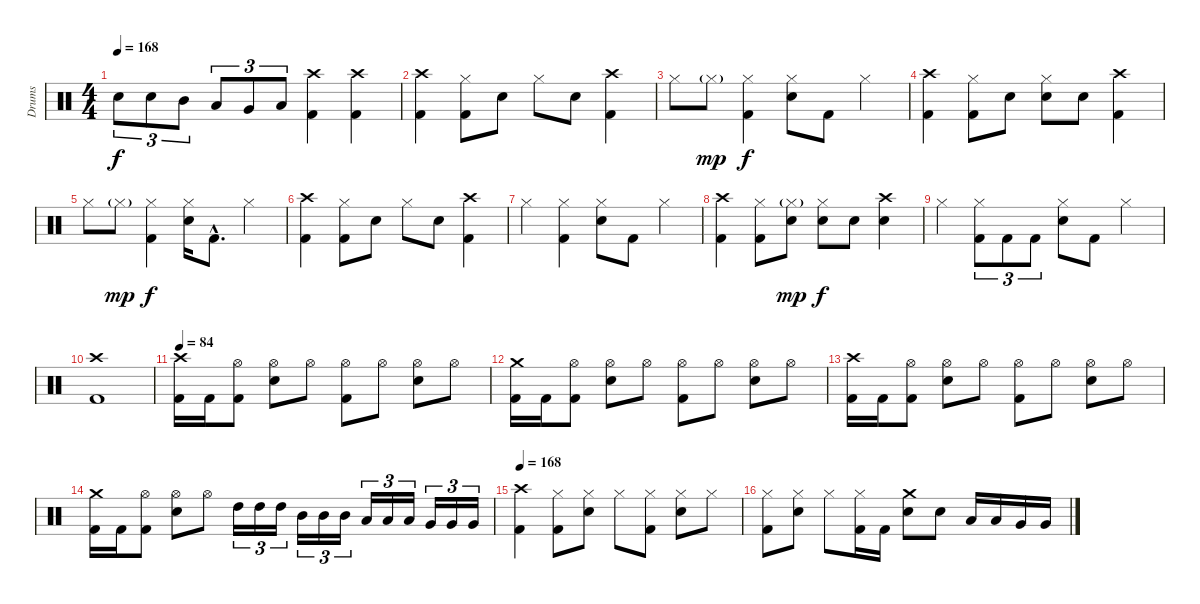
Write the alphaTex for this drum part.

\track ("Drums" "Drums") {instrument percussion}
\staff {score}
\articulation defaults
\ts (4 4)
\tempo 168
\clef neutral
\ks c "Electric Snare (hit)".8{tu (3 2) dy f} "Electric Snare (hit)".8{tu (3 2)} "Mid Tom (hit)".8{tu (3 2)} "Low Tom (hit)".8{tu (3 2)} "Very Low Tom (hit)".8{tu (3 2)} "Low Floor Tom (hit)".8{tu (3 2)}
("Crash high (hit)" "Kick (hit) 2").4 ("Crash high (hit)" "Kick (hit) 2").4 |
("Crash high (hit)" "Kick (hit) 2").4 ("Hi-Hat (closed)" "Kick (hit) 2").8 "Electric Snare (hit)".8 "Hi-Hat (closed)".8 "Electric Snare (hit)".8 ("Crash high (hit)" "Kick (hit) 2").4 |
"Hi-Hat (closed)".8 "Hi-Hat (closed)"{g}.8{dy mp} ("Hi-Hat (closed)" "Kick (hit) 2").4{dy f} ("Hi-Hat (closed)" "Electric Snare (hit)").8 "Kick (hit) 2".8 "Hi-Hat (closed)".4 |
("Crash high (hit)" "Kick (hit) 2").4 ("Hi-Hat (closed)" "Kick (hit) 2").8 "Electric Snare (hit)".8 ("Hi-Hat (closed)" "Electric Snare (hit)").8 "Electric Snare (hit)".8 ("Crash high (hit)" "Kick (hit) 2").4 |
"Hi-Hat (closed)".8 "Hi-Hat (closed)"{g}.8{dy mp} ("Hi-Hat (closed)" "Kick (hit) 2").4{dy f} ("Hi-Hat (closed)" "Electric Snare (hit)").16 "Kick (hit) 2"{hac}.8{d} "Hi-Hat (closed)".4 |
("Crash high (hit)" "Kick (hit) 2").4 ("Hi-Hat (closed)" "Kick (hit) 2").8 "Electric Snare (hit)".8 "Hi-Hat (closed)".8 "Electric Snare (hit)".8 ("Crash high (hit)" "Kick (hit) 2").4 |
"Hi-Hat (closed)".4 ("Hi-Hat (closed)" "Kick (hit) 2").4 ("Hi-Hat (closed)" "Electric Snare (hit)").8 "Kick (hit) 2".8 "Hi-Hat (closed)".4 |
("Crash high (hit)" "Kick (hit) 2").4 ("Hi-Hat (closed)" "Kick (hit) 2").8 ("Hi-Hat (closed)"{g} "Electric Snare (hit)").8{dy mp} ("Hi-Hat (closed)" "Electric Snare (hit)").8{dy f} "Electric Snare (hit)".8 ("Crash high (hit)" "Electric Snare (hit)").4 |
"Hi-Hat (closed)".4 ("Hi-Hat (closed)" "Kick (hit) 2").8{tu (3 2)} "Kick (hit) 2".8{tu (3 2)} "Kick (hit) 2".8{tu (3 2)} ("Hi-Hat (closed)" "Electric Snare (hit)").8 "Kick (hit) 2".8 "Hi-Hat (closed)".4 |
("Crash high (hit)" "Kick (hit) 2").1 |
\tempo 84
("Crash high (hit)" "Kick (hit) 2").16 "Kick (hit) 2".16 ("Hi-Hat (open)" "Kick (hit) 2").8 ("Hi-Hat (open)" "Electric Snare (hit)").8 "Hi-Hat (open)".8 ("Hi-Hat (open)" "Kick (hit) 2").8 "Hi-Hat (open)".8 ("Hi-Hat (open)" "Electric Snare (hit)").8 "Hi-Hat (open)".8 |
("Crash medium (hit)" "Kick (hit) 2").16 "Kick (hit) 2".16 ("Hi-Hat (open)" "Kick (hit) 2").8 ("Hi-Hat (open)" "Electric Snare (hit)").8 "Hi-Hat (open)".8 ("Hi-Hat (open)" "Kick (hit) 2").8 "Hi-Hat (open)".8 ("Hi-Hat (open)" "Electric Snare (hit)").8 "Hi-Hat (open)".8 |
("Crash high (hit)" "Kick (hit) 2").16 "Kick (hit) 2".16 ("Hi-Hat (open)" "Kick (hit) 2").8 ("Hi-Hat (open)" "Electric Snare (hit)").8 "Hi-Hat (open)".8 ("Hi-Hat (open)" "Kick (hit) 2").8 "Hi-Hat (open)".8 ("Hi-Hat (open)" "Electric Snare (hit)").8 "Hi-Hat (open)".8 |
("Crash medium (hit)" "Kick (hit) 2").16 "Kick (hit) 2".16 ("Hi-Hat (open)" "Kick (hit) 2").8 ("Hi-Hat (open)" "Electric Snare (hit)").8 "Hi-Hat (open)".8 "High Tom (hit)".16{tu (3 2)} "High Tom (hit)".16{tu (3 2)} "High Tom (hit)".16{tu (3 2)} "Mid Tom (hit)".16{tu (3 2)} "Mid Tom (hit)".16{tu (3 2)} "Mid Tom (hit)".16{tu (3 2)} "Low Tom (hit)".16{tu (3 2)} "Low Tom (hit)".16{tu (3 2)} "Low Tom (hit)".16{tu (3 2)} "Very Low Tom (hit)".16{tu (3 2)} "Very Low Tom (hit)".16{tu (3 2)} "Very Low Tom (hit)".16{tu (3 2)} |
\tempo 168
("Crash high (hit)" "Kick (hit) 2").4 ("Hi-Hat (closed)" "Kick (hit) 2").8 ("Hi-Hat (closed)" "Electric Snare (hit)").8 "Hi-Hat (closed)".8 ("Hi-Hat (closed)" "Kick (hit) 2").8 ("Hi-Hat (closed)" "Electric Snare (hit)").8 "Hi-Hat (closed)".8 |
("Hi-Hat (closed)" "Kick (hit) 2").8 ("Hi-Hat (closed)" "Electric Snare (hit)").8 "Hi-Hat (closed)".8 ("Hi-Hat (closed)" "Kick (hit) 2").16 "Kick (hit) 2".16 ("Crash medium (hit)" "Electric Snare (hit)").8 "Electric Snare (hit)".8 "Low Tom (hit)".16 "Low Tom (hit)".16 "Very Low Tom (hit)".16 "Very Low Tom (hit)".16
